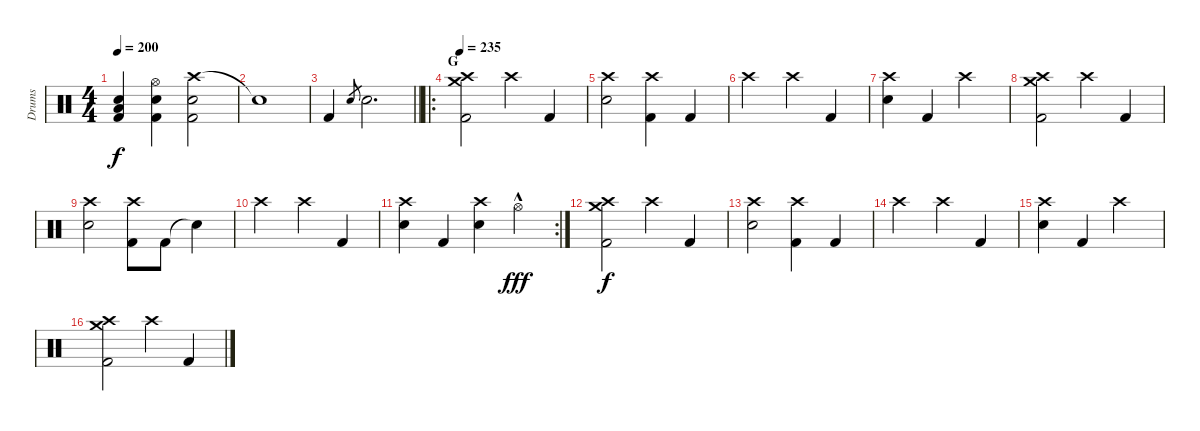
\track ("Drums" "Drums") {instrument percussion}
\staff {score}
\articulation defaults
\ts (4 4)
\tempo 200
\clef neutral
\ks c
("Low Tom (hit)" "Electric Snare (hit)" "Kick (hit) 2").4{dy f} ("Hi-Hat (open)" "Electric Snare (hit)" "Kick (hit) 2").4 ("Crash high (hit)" "Electric Snare (hit)" "Kick (hit) 2").2 |
"Snare (hit)"{t}.1 |
\barLineRight lightlight "Kick (hit) 2".4 "Electric Snare (hit)".8{gr} "Electric Snare (hit)".2{d}
|
\ro
\section ("" "G")
\tempo 235
("Crash medium (hit)" "Crash high (hit)" "Kick (hit) 2").2 "Crash high (hit)".4 "Kick (hit) 2".4 |
("Crash high (hit)" "Electric Snare (hit)").2 ("Crash high (hit)" "Kick (hit) 2").4 "Kick (hit) 2".4 |
"Crash high (hit)".2 "Crash high (hit)".4 "Kick (hit) 2".4 |
("Crash high (hit)" "Electric Snare (hit)").4 "Kick (hit) 2".4 "Crash high (hit)".2 |
("Crash medium (hit)" "Crash high (hit)" "Kick (hit) 2").2 "Crash high (hit)".4 "Kick (hit) 2".4 |
("Crash high (hit)" "Electric Snare (hit)").2 ("Crash high (hit)" "Kick (hit) 2").8 "Kick (hit) 2".8 "Snare (hit)"{t}.4 |
"Crash high (hit)".2 "Crash high (hit)".4 "Kick (hit) 2".4 |
\rc 2
("Crash high (hit)" "Electric Snare (hit)").4 "Kick (hit) 2".4 ("Crash high (hit)" "Electric Snare (hit)").4 "Hi-Hat (open)"{hac}.4{dy fff} |
("Crash medium (hit)" "Crash high (hit)" "Kick (hit) 2").2{dy f} "Crash high (hit)".4 "Kick (hit) 2".4 |
("Crash high (hit)" "Electric Snare (hit)").2 ("Crash high (hit)" "Kick (hit) 2").4 "Kick (hit) 2".4 |
"Crash high (hit)".2 "Crash high (hit)".4 "Kick (hit) 2".4 |
("Crash high (hit)" "Electric Snare (hit)").4 "Kick (hit) 2".4 "Crash high (hit)".2 |
("Crash medium (hit)" "Crash high (hit)" "Kick (hit) 2").2 "Crash high (hit)".4 "Kick (hit) 2".4
